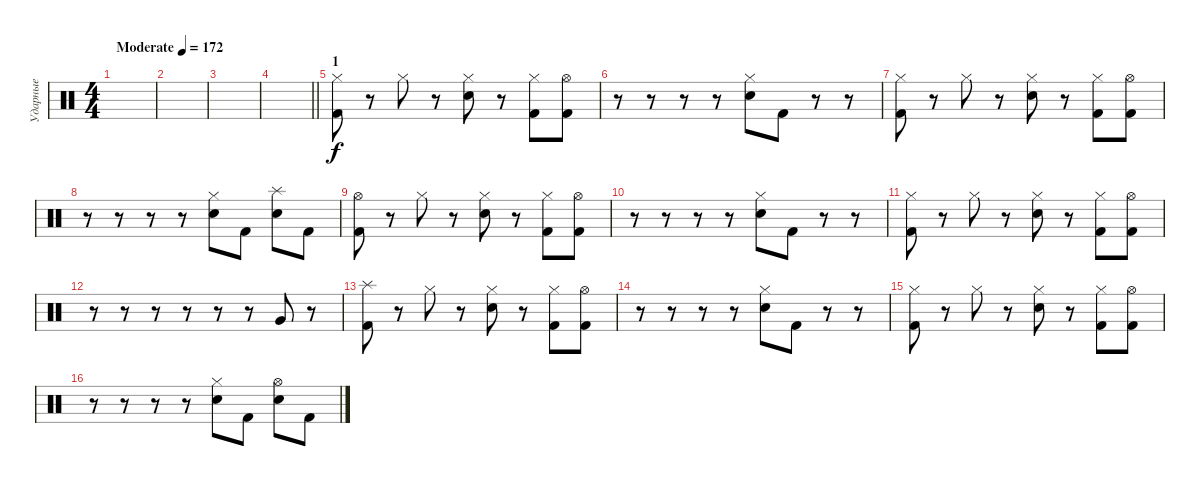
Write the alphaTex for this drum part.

\track ("Ударные" "Ударные") {instrument percussion}
\staff {score}
\articulation defaults
\ts (4 4)
\tempo (172 "Moderate")
\clef neutral
\ks c
|
|
|
\barLineRight lightlight
|
\section ("" "1")
("Hi-Hat (closed)" "Kick (hit) 2").8 r.8 "Hi-Hat (closed)".8 r.8 ("Hi-Hat (closed)" "Electric Snare (hit)").8 r.8 ("Hi-Hat (closed)" "Kick (hit) 2").8 ("Hi-Hat (open)" "Kick (hit) 2").8 |
r.8 r.8 r.8 r.8 ("Hi-Hat (closed)" "Electric Snare (hit)").8 "Kick (hit) 2".8 r.8 r.8 |
("Hi-Hat (closed)" "Kick (hit) 2").8 r.8 "Hi-Hat (closed)".8 r.8 ("Hi-Hat (closed)" "Electric Snare (hit)").8 r.8 ("Hi-Hat (closed)" "Kick (hit) 2").8 ("Hi-Hat (open)" "Kick (hit) 2").8 |
r.8 r.8 r.8 r.8 ("Hi-Hat (closed)" "Electric Snare (hit)").8 "Kick (hit) 2".8 ("Splash (hit)" "Electric Snare (hit)").8 "Kick (hit) 2".8 |
("Hi-Hat (open)" "Kick (hit) 2").8 r.8 "Hi-Hat (closed)".8 r.8 ("Hi-Hat (closed)" "Electric Snare (hit)").8 r.8 ("Hi-Hat (closed)" "Kick (hit) 2").8 ("Hi-Hat (open)" "Kick (hit) 2").8 |
r.8 r.8 r.8 r.8 ("Hi-Hat (closed)" "Electric Snare (hit)").8 "Kick (hit) 2".8 r.8 r.8 |
("Hi-Hat (closed)" "Kick (hit) 2").8 r.8 "Hi-Hat (closed)".8 r.8 ("Hi-Hat (closed)" "Electric Snare (hit)").8 r.8 ("Hi-Hat (closed)" "Kick (hit) 2").8 ("Hi-Hat (open)" "Kick (hit) 2").8 |
r.8 r.8 r.8 r.8 r.8 r.8 "Very Low Tom (hit)".8 r.8 |
("Splash (hit)" "Kick (hit) 2").8 r.8 "Hi-Hat (closed)".8 r.8 ("Hi-Hat (closed)" "Electric Snare (hit)").8 r.8 ("Hi-Hat (closed)" "Kick (hit) 2").8 ("Hi-Hat (open)" "Kick (hit) 2").8 |
r.8 r.8 r.8 r.8 ("Hi-Hat (closed)" "Electric Snare (hit)").8 "Kick (hit) 2".8 r.8 r.8 |
("Hi-Hat (closed)" "Kick (hit) 2").8 r.8 "Hi-Hat (closed)".8 r.8 ("Hi-Hat (closed)" "Electric Snare (hit)").8 r.8 ("Hi-Hat (closed)" "Kick (hit) 2").8 ("Hi-Hat (open)" "Kick (hit) 2").8 |
r.8 r.8 r.8 r.8 ("Hi-Hat (closed)" "Electric Snare (hit)").8 "Kick (hit) 2".8 ("Hi-Hat (open)" "Electric Snare (hit)").8 "Kick (hit) 2".8
